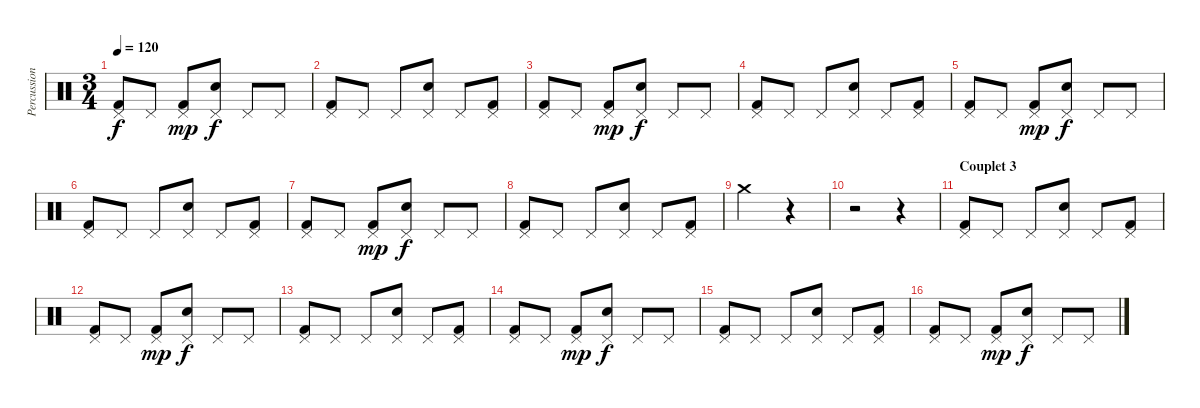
\track ("Percussions" "Percussion") {instrument percussion}
\staff {score}
\articulation defaults
\ts (3 4)
\tempo 120
\clef neutral
\ks c
("Pedal Hi-Hat (hit)" "Kick (hit) 2").8{dy f} "Pedal Hi-Hat (hit)".8 ("Pedal Hi-Hat (hit)" "Kick (hit) 2").8{dy mp} ("Pedal Hi-Hat (hit)" "Electric Snare (hit)").8{dy f} "Pedal Hi-Hat (hit)".8 "Pedal Hi-Hat (hit)".8 |
("Pedal Hi-Hat (hit)" "Kick (hit) 2").8 "Pedal Hi-Hat (hit)".8 "Pedal Hi-Hat (hit)".8 ("Pedal Hi-Hat (hit)" "Electric Snare (hit)").8 "Pedal Hi-Hat (hit)".8 ("Pedal Hi-Hat (hit)" "Kick (hit) 2").8 |
("Pedal Hi-Hat (hit)" "Kick (hit) 2").8 "Pedal Hi-Hat (hit)".8 ("Pedal Hi-Hat (hit)" "Kick (hit) 2").8{dy mp} ("Pedal Hi-Hat (hit)" "Electric Snare (hit)").8{dy f} "Pedal Hi-Hat (hit)".8 "Pedal Hi-Hat (hit)".8 |
("Pedal Hi-Hat (hit)" "Kick (hit) 2").8 "Pedal Hi-Hat (hit)".8 "Pedal Hi-Hat (hit)".8 ("Pedal Hi-Hat (hit)" "Electric Snare (hit)").8 "Pedal Hi-Hat (hit)".8 ("Pedal Hi-Hat (hit)" "Kick (hit) 2").8 |
("Pedal Hi-Hat (hit)" "Kick (hit) 2").8 "Pedal Hi-Hat (hit)".8 ("Pedal Hi-Hat (hit)" "Kick (hit) 2").8{dy mp} ("Pedal Hi-Hat (hit)" "Electric Snare (hit)").8{dy f} "Pedal Hi-Hat (hit)".8 "Pedal Hi-Hat (hit)".8 |
("Pedal Hi-Hat (hit)" "Kick (hit) 2").8 "Pedal Hi-Hat (hit)".8 "Pedal Hi-Hat (hit)".8 ("Pedal Hi-Hat (hit)" "Electric Snare (hit)").8 "Pedal Hi-Hat (hit)".8 ("Pedal Hi-Hat (hit)" "Kick (hit) 2").8 |
("Pedal Hi-Hat (hit)" "Kick (hit) 2").8 "Pedal Hi-Hat (hit)".8 ("Pedal Hi-Hat (hit)" "Kick (hit) 2").8{dy mp} ("Pedal Hi-Hat (hit)" "Electric Snare (hit)").8{dy f} "Pedal Hi-Hat (hit)".8 "Pedal Hi-Hat (hit)".8 |
("Pedal Hi-Hat (hit)" "Kick (hit) 2").8 "Pedal Hi-Hat (hit)".8 "Pedal Hi-Hat (hit)".8 ("Pedal Hi-Hat (hit)" "Electric Snare (hit)").8 "Pedal Hi-Hat (hit)".8 ("Pedal Hi-Hat (hit)" "Kick (hit) 2").8 |
"Crash medium (hit)".2 r.4 |
r.2 r.4 |
\section ("" "Couplet 3")
("Pedal Hi-Hat (hit)" "Kick (hit) 2").8 "Pedal Hi-Hat (hit)".8 "Pedal Hi-Hat (hit)".8 ("Pedal Hi-Hat (hit)" "Electric Snare (hit)").8 "Pedal Hi-Hat (hit)".8 ("Pedal Hi-Hat (hit)" "Kick (hit) 2").8 |
("Pedal Hi-Hat (hit)" "Kick (hit) 2").8 "Pedal Hi-Hat (hit)".8 ("Pedal Hi-Hat (hit)" "Kick (hit) 2").8{dy mp} ("Pedal Hi-Hat (hit)" "Electric Snare (hit)").8{dy f} "Pedal Hi-Hat (hit)".8 "Pedal Hi-Hat (hit)".8 |
("Pedal Hi-Hat (hit)" "Kick (hit) 2").8 "Pedal Hi-Hat (hit)".8 "Pedal Hi-Hat (hit)".8 ("Pedal Hi-Hat (hit)" "Electric Snare (hit)").8 "Pedal Hi-Hat (hit)".8 ("Pedal Hi-Hat (hit)" "Kick (hit) 2").8 |
("Pedal Hi-Hat (hit)" "Kick (hit) 2").8 "Pedal Hi-Hat (hit)".8 ("Pedal Hi-Hat (hit)" "Kick (hit) 2").8{dy mp} ("Pedal Hi-Hat (hit)" "Electric Snare (hit)").8{dy f} "Pedal Hi-Hat (hit)".8 "Pedal Hi-Hat (hit)".8 |
("Pedal Hi-Hat (hit)" "Kick (hit) 2").8 "Pedal Hi-Hat (hit)".8 "Pedal Hi-Hat (hit)".8 ("Pedal Hi-Hat (hit)" "Electric Snare (hit)").8 "Pedal Hi-Hat (hit)".8 ("Pedal Hi-Hat (hit)" "Kick (hit) 2").8 |
("Pedal Hi-Hat (hit)" "Kick (hit) 2").8 "Pedal Hi-Hat (hit)".8 ("Pedal Hi-Hat (hit)" "Kick (hit) 2").8{dy mp} ("Pedal Hi-Hat (hit)" "Electric Snare (hit)").8{dy f} "Pedal Hi-Hat (hit)".8 "Pedal Hi-Hat (hit)".8
